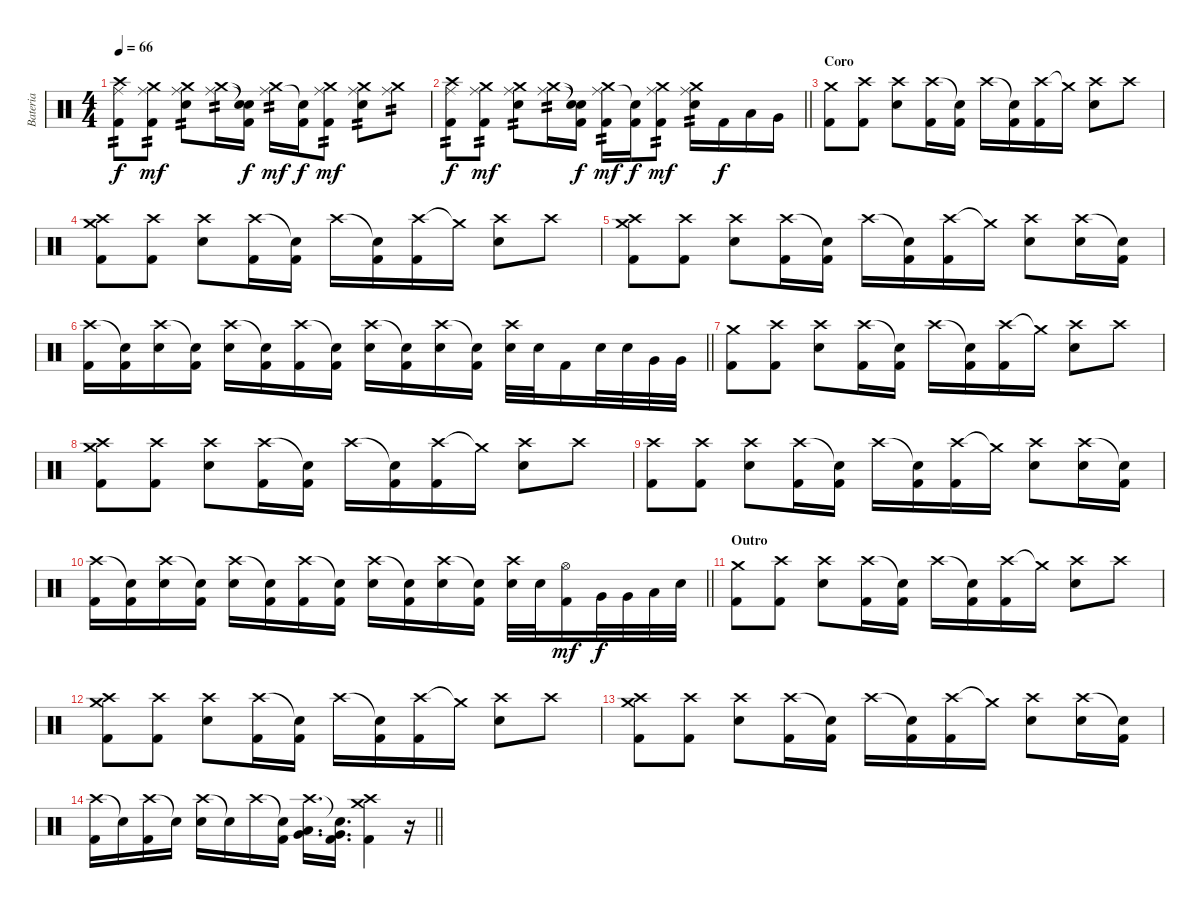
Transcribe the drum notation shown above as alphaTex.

\track ("Bateria" "Bateria") {instrument percussion}
\staff {score}
\articulation defaults
\ts (4 4)
\tempo 66
\clef neutral
\ks c
("Ride (middle)" "Crash high (hit)" "Kick (hit) 2").8{tp 2 dy f} ("Ride (middle)" "Crash medium (hit)" "Kick (hit) 2").8{tp 2 dy mf} ("Ride (middle)" "Crash medium (hit)" "Electric Snare (hit)").8{tp 2} ("Ride (middle)" "Crash medium (hit)").16{tp 2} ("Snare (hit)"{t} "Snare (hit)"{t} "Kick (hit) 2").16{dy f} ("Ride (middle)" "Crash medium (hit)").16{tp 2 dy mf} ("Snare (hit)"{t} "Kick (hit) 2").16{dy f} ("Ride (middle)" "Crash medium (hit)" "Kick (hit) 2").8{tp 2 dy mf} ("Ride (middle)" "Crash medium (hit)" "Electric Snare (hit)").8{tp 2} ("Ride (middle)" "Crash medium (hit)").8{tp 2} |
\barLineRight lightlight
("Ride (middle)" "Crash high (hit)" "Kick (hit) 2").8{tp 2 dy f} ("Ride (middle)" "Crash medium (hit)" "Kick (hit) 2").8{tp 2 dy mf} ("Ride (middle)" "Crash medium (hit)" "Electric Snare (hit)").8{tp 2} ("Ride (middle)" "Crash medium (hit)").16{tp 2} ("Snare (hit)"{t} "Snare (hit)"{t} "Kick (hit) 2").16{dy f} ("Ride (middle)" "Crash medium (hit)" "Kick (hit) 2").16{tp 2 dy mf} ("Snare (hit)"{t} "Kick (hit) 2").16{dy f} ("Ride (middle)" "Crash medium (hit)" "Kick (hit) 2").8{tp 2 dy mf} ("Ride (middle)" "Crash medium (hit)" "Electric Snare (hit)").16{tp 2} "Kick (hit) 2".16{dy f} "Low Tom (hit)".16 "Very Low Tom (hit)".16 |
\section ("" "Coro")
("Crash medium (hit)" "Kick (hit) 2").8 ("Crash high (hit)" "Kick (hit) 2").8 ("Crash high (hit)" "Electric Snare (hit)").8 ("Crash high (hit)" "Kick (hit) 2").16 ("Snare (hit)"{t} "Kick (hit) 2").16 "Crash high (hit)".16 ("Snare (hit)"{t} "Kick (hit) 2").16 ("Crash high (hit)" "Kick (hit) 2").16 "Crash medium (hit)"{t}.16 ("Crash high (hit)" "Electric Snare (hit)").8 "Crash high (hit)".8 |
("Crash high (hit)" "Crash medium (hit)" "Kick (hit) 2").8 ("Crash high (hit)" "Kick (hit) 2").8 ("Crash high (hit)" "Electric Snare (hit)").8 ("Crash high (hit)" "Kick (hit) 2").16 ("Snare (hit)"{t} "Kick (hit) 2").16 "Crash high (hit)".16 ("Snare (hit)"{t} "Kick (hit) 2").16 ("Crash high (hit)" "Kick (hit) 2").16 "Crash medium (hit)"{t}.16 ("Crash high (hit)" "Electric Snare (hit)").8 "Crash high (hit)".8 |
("Crash high (hit)" "Crash medium (hit)" "Kick (hit) 2").8 ("Crash high (hit)" "Kick (hit) 2").8 ("Crash high (hit)" "Electric Snare (hit)").8 ("Crash high (hit)" "Kick (hit) 2").16 ("Snare (hit)"{t} "Kick (hit) 2").16 "Crash high (hit)".16 ("Snare (hit)"{t} "Kick (hit) 2").16 ("Crash high (hit)" "Kick (hit) 2").16 "Crash medium (hit)"{t}.16 ("Crash high (hit)" "Electric Snare (hit)").8 ("Crash high (hit)" "Electric Snare (hit)").16 ("Snare (hit)"{t} "Kick (hit) 2").16 |
\barLineRight lightlight
("Crash high (hit)" "Kick (hit) 2").16 ("Snare (hit)"{t} "Kick (hit) 2").16 ("Crash high (hit)" "Electric Snare (hit)").16 ("Snare (hit)"{t} "Kick (hit) 2").16 ("Crash high (hit)" "Electric Snare (hit)").16 ("Snare (hit)"{t} "Kick (hit) 2").16 ("Crash high (hit)" "Kick (hit) 2").16 ("Snare (hit)"{t} "Kick (hit) 2").16 ("Crash high (hit)" "Electric Snare (hit)").16 ("Snare (hit)"{t} "Kick (hit) 2").16 ("Crash high (hit)" "Electric Snare (hit)").16 ("Snare (hit)"{t} "Kick (hit) 2").16 ("Crash high (hit)" "Electric Snare (hit)").32 "Electric Snare (hit)".32 "Kick (hit) 2".16 "Electric Snare (hit)".32 "Electric Snare (hit)".32 "Very Low Tom (hit)".32 "Very Low Tom (hit)".32 |
("Crash medium (hit)" "Kick (hit) 2").8 ("Crash high (hit)" "Kick (hit) 2").8 ("Crash high (hit)" "Electric Snare (hit)").8 ("Crash high (hit)" "Kick (hit) 2").16 ("Snare (hit)"{t} "Kick (hit) 2").16 "Crash high (hit)".16 ("Snare (hit)"{t} "Kick (hit) 2").16 ("Crash high (hit)" "Kick (hit) 2").16 "Crash medium (hit)"{t}.16 ("Crash high (hit)" "Electric Snare (hit)").8 "Crash high (hit)".8 |
("Crash high (hit)" "Crash medium (hit)" "Kick (hit) 2").8 ("Crash high (hit)" "Kick (hit) 2").8 ("Crash high (hit)" "Electric Snare (hit)").8 ("Crash high (hit)" "Kick (hit) 2").16 ("Snare (hit)"{t} "Kick (hit) 2").16 "Crash high (hit)".16 ("Snare (hit)"{t} "Kick (hit) 2").16 ("Crash high (hit)" "Kick (hit) 2").16 "Crash medium (hit)"{t}.16 ("Crash high (hit)" "Electric Snare (hit)").8 "Crash high (hit)".8 |
("Crash high (hit)" "Kick (hit) 2").8 ("Crash high (hit)" "Kick (hit) 2").8 ("Crash high (hit)" "Electric Snare (hit)").8 ("Crash high (hit)" "Kick (hit) 2").16 ("Snare (hit)"{t} "Kick (hit) 2").16 "Crash high (hit)".16 ("Snare (hit)"{t} "Kick (hit) 2").16 ("Crash high (hit)" "Kick (hit) 2").16 "Crash medium (hit)"{t}.16 ("Crash high (hit)" "Electric Snare (hit)").8 ("Crash high (hit)" "Electric Snare (hit)").16 ("Snare (hit)"{t} "Kick (hit) 2").16 |
\barLineRight lightlight
("Crash high (hit)" "Kick (hit) 2").16 ("Snare (hit)"{t} "Kick (hit) 2").16 ("Crash high (hit)" "Electric Snare (hit)").16 ("Snare (hit)"{t} "Kick (hit) 2").16 ("Crash high (hit)" "Electric Snare (hit)").16 ("Snare (hit)"{t} "Kick (hit) 2").16 ("Crash high (hit)" "Kick (hit) 2").16 ("Snare (hit)"{t} "Kick (hit) 2").16 ("Crash high (hit)" "Electric Snare (hit)").16 ("Snare (hit)"{t} "Kick (hit) 2").16 ("Crash high (hit)" "Electric Snare (hit)").16 ("Snare (hit)"{t} "Kick (hit) 2").16 ("Crash high (hit)" "Electric Snare (hit)").32 "Electric Snare (hit)".32 ("Hi-Hat (open)" "Kick (hit) 2").16{dy mf} "Very Low Tom (hit)".32{dy f} "Very Low Tom (hit)".32 "Low Floor Tom (hit)".32 "Electric Snare (hit)".32 |
\section ("" "Outro")
("Crash medium (hit)" "Kick (hit) 2").8 ("Crash high (hit)" "Kick (hit) 2").8 ("Crash high (hit)" "Electric Snare (hit)").8 ("Crash high (hit)" "Kick (hit) 2").16 ("Snare (hit)"{t} "Kick (hit) 2").16 "Crash high (hit)".16 ("Snare (hit)"{t} "Kick (hit) 2").16 ("Crash high (hit)" "Kick (hit) 2").16 "Crash medium (hit)"{t}.16 ("Crash high (hit)" "Electric Snare (hit)").8 "Crash high (hit)".8 |
("Crash high (hit)" "Crash medium (hit)" "Kick (hit) 2").8 ("Crash high (hit)" "Kick (hit) 2").8 ("Crash high (hit)" "Electric Snare (hit)").8 ("Crash high (hit)" "Kick (hit) 2").16 ("Snare (hit)"{t} "Kick (hit) 2").16 "Crash high (hit)".16 ("Snare (hit)"{t} "Kick (hit) 2").16 ("Crash high (hit)" "Kick (hit) 2").16 "Crash medium (hit)"{t}.16 ("Crash high (hit)" "Electric Snare (hit)").8 "Crash high (hit)".8 |
("Crash high (hit)" "Crash medium (hit)" "Kick (hit) 2").8 ("Crash high (hit)" "Kick (hit) 2").8 ("Crash high (hit)" "Electric Snare (hit)").8 ("Crash high (hit)" "Kick (hit) 2").16 ("Snare (hit)"{t} "Kick (hit) 2").16 "Crash high (hit)".16 ("Snare (hit)"{t} "Kick (hit) 2").16 ("Crash high (hit)" "Kick (hit) 2").16 "Crash medium (hit)"{t}.16 ("Crash high (hit)" "Electric Snare (hit)").8 ("Crash high (hit)" "Electric Snare (hit)").16 ("Snare (hit)"{t} "Kick (hit) 2").16 |
\barLineRight lightlight
("Crash high (hit)" "Kick (hit) 2").16 "Snare (hit)"{t}.16 ("Crash high (hit)" "Kick (hit) 2").16 "Snare (hit)"{t}.16 ("Crash high (hit)" "Electric Snare (hit)").16 "Snare (hit)"{t}.16 "Crash high (hit)".16 ("Snare (hit)"{t} "Kick (hit) 2").16 ("Crash high (hit)" "Very Low Tom (hit)" "Low Tom (hit)").16{d} ("Snare (hit)"{t} "Very Low Tom (hit)" "Kick (hit) 2").16{d} ("Crash high (hit)" "Crash medium (hit)" "Kick (hit) 2").4 r.16
